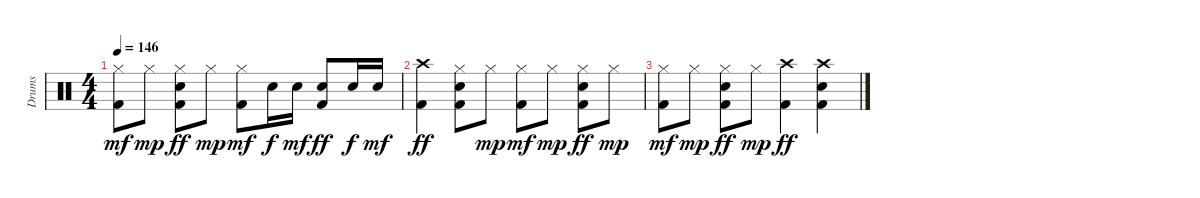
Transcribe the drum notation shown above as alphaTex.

\track ("Drums" "Drums") {instrument percussion}
\staff {score}
\articulation defaults
\ts (4 4)
\tempo 146
\clef neutral
\ks c
("Kick (hit) 2" "Hi-Hat (closed)").8{dy mf} "Hi-Hat (closed)".8{dy mp} ("Kick (hit) 2" "Snare (hit) 2" "Hi-Hat (closed)").8{dy ff} "Hi-Hat (closed)".8{dy mp} ("Kick (hit) 2" "Hi-Hat (closed)").8{dy mf} "Snare (hit) 2".16{dy f} "Snare (hit) 2".16{dy mf} ("Kick (hit) 2" "Snare (hit) 2").8{dy ff} "Snare (hit) 2".16{dy f} "Snare (hit) 2".16{dy mf} |
("Kick (hit) 2" "Crash high (hit)").4{dy ff} ("Kick (hit) 2" "Hi-Hat (closed)" "Snare (hit) 2").8 "Hi-Hat (closed)".8{dy mp} ("Kick (hit) 2" "Hi-Hat (closed)").8{dy mf} "Hi-Hat (closed)".8{dy mp} ("Kick (hit) 2" "Hi-Hat (closed)" "Snare (hit) 2").8{dy ff} "Hi-Hat (closed)".8{dy mp} |
("Kick (hit) 2" "Hi-Hat (closed)").8{dy mf} "Hi-Hat (closed)".8{dy mp} ("Kick (hit) 2" "Snare (hit) 2" "Hi-Hat (closed)").8{dy ff} "Hi-Hat (closed)".8{dy mp} ("Kick (hit) 2" "Crash high (hit)").4{dy ff} ("Kick (hit) 2" "Snare (hit) 2" "Crash high (hit)").4
